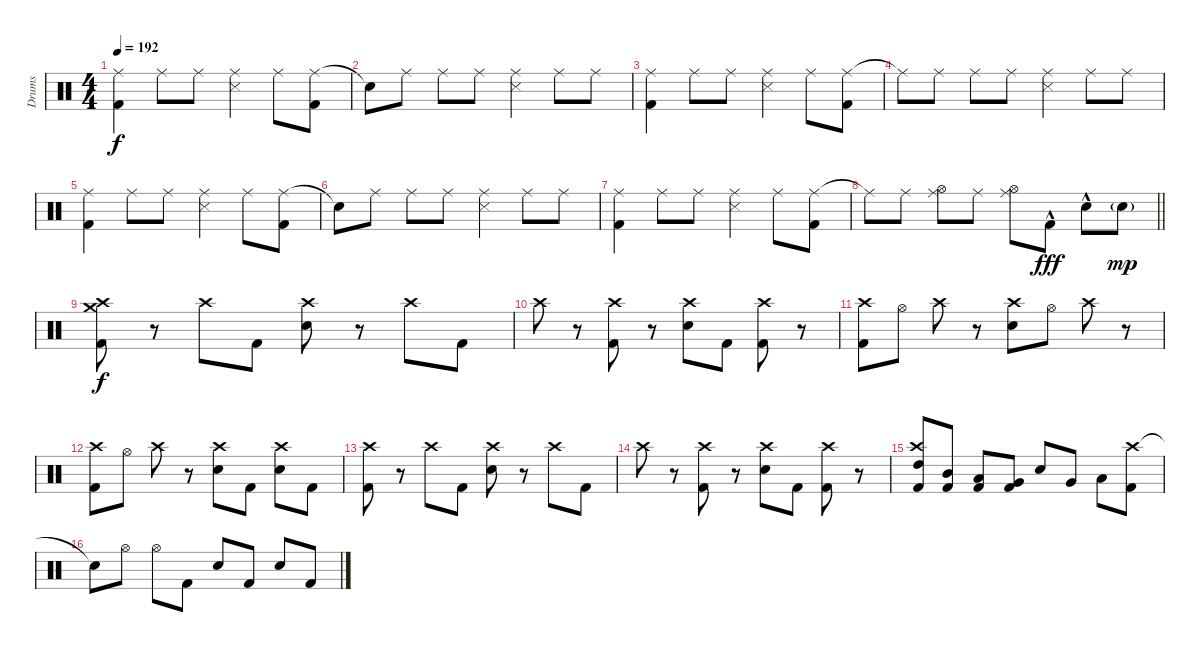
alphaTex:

\track ("Drums" "Drums") {instrument percussion}
\staff {score}
\articulation defaults
\ts (4 4)
\tempo 192
\clef neutral
\ks c
("Ride (middle)" "Kick (hit) 2").4{dy f} "Ride (middle)".8 "Ride (middle)".8 ("Ride (middle)" "Snare (side stick) 3").4 "Ride (middle)".8 ("Ride (middle)" "Kick (hit) 2").8 |
"Snare (hit)"{t}.8 "Ride (middle)".8 "Ride (middle)".8 "Ride (middle)".8 ("Ride (middle)" "Snare (side stick) 3").4 "Ride (middle)".8 "Ride (middle)".8 |
("Ride (middle)" "Kick (hit) 2").4 "Ride (middle)".8 "Ride (middle)".8 ("Ride (middle)" "Snare (side stick) 3").4 "Ride (middle)".8 ("Ride (middle)" "Kick (hit) 2").8 |
"Ride (middle)"{t}.8 "Ride (middle)".8 "Ride (middle)".8 "Ride (middle)".8 ("Ride (middle)" "Snare (side stick) 3").4 "Ride (middle)".8 "Ride (middle)".8 |
("Ride (middle)" "Kick (hit) 2").4 "Ride (middle)".8 "Ride (middle)".8 ("Ride (middle)" "Snare (side stick) 3").4 "Ride (middle)".8 ("Ride (middle)" "Kick (hit) 2").8 |
"Snare (hit)"{t}.8 "Ride (middle)".8 "Ride (middle)".8 "Ride (middle)".8 ("Ride (middle)" "Snare (side stick) 3").4 "Ride (middle)".8 "Ride (middle)".8 |
("Ride (middle)" "Kick (hit) 2").4 "Ride (middle)".8 "Ride (middle)".8 ("Ride (middle)" "Snare (side stick) 3").4 "Ride (middle)".8 ("Ride (middle)" "Kick (hit) 2").8 |
\barLineRight lightlight "Ride (middle)"{t}.8 "Ride (middle)".8
("Ride (middle)" "Hi-Hat (open)").8 "Ride (middle)".8 ("Ride (middle)" "Hi-Hat (open)").8 "Kick (hit) 2"{hac}.8{dy fff} "Electric Snare (hit)"{hac}.8 "Electric Snare (hit)"{g}.8{dy mp} |
("Crash high (hit)" "Crash medium (hit)" "Kick (hit) 2").8{dy f} r.8 "Crash high (hit)".8 "Kick (hit) 2".8 ("Crash high (hit)" "Electric Snare (hit)").8 r.8 "Crash high (hit)".8 "Kick (hit) 2".8 |
"Crash high (hit)".8 r.8 ("Crash high (hit)" "Kick (hit) 2").8 r.8 ("Crash high (hit)" "Electric Snare (hit)").8 "Kick (hit) 2".8 ("Crash high (hit)" "Kick (hit) 2").8 r.8 |
("Crash high (hit)" "Kick (hit) 2").8 "Hi-Hat (open)".8 "Crash high (hit)".8 r.8 ("Crash high (hit)" "Electric Snare (hit)").8 "Hi-Hat (open)".8 "Crash high (hit)".8 r.8 |
("Crash high (hit)" "Kick (hit) 2").8 "Hi-Hat (open)".8 "Crash high (hit)".8 r.8 ("Crash high (hit)" "Electric Snare (hit)").8 "Kick (hit) 2".8 ("Crash high (hit)" "Electric Snare (hit)").8 "Kick (hit) 2".8 |
("Crash high (hit)" "Kick (hit) 2").8 r.8 "Crash high (hit)".8 "Kick (hit) 2".8 ("Crash high (hit)" "Electric Snare (hit)").8 r.8 "Crash high (hit)".8 "Kick (hit) 2".8 |
"Crash high (hit)".8 r.8 ("Crash high (hit)" "Kick (hit) 2").8 r.8 ("Crash high (hit)" "Electric Snare (hit)").8 "Kick (hit) 2".8 ("Crash high (hit)" "Kick (hit) 2").8 r.8 |
("Crash high (hit)" "High Tom (hit)" "Kick (hit) 2").8 ("Mid Tom (hit)" "Kick (hit) 2").8 ("Low Tom (hit)" "Kick (hit) 2").8 ("Very Low Tom (hit)" "Kick (hit) 2").8 "Electric Snare (hit)".8 "Very Low Tom (hit)".8 "Low Floor Tom (hit)".8 ("Crash high (hit)" "Kick (hit) 2").8 |
"Snare (hit)"{t}.8 "Hi-Hat (open)".8 "Hi-Hat (open)".8 "Kick (hit) 2".8 "Electric Snare (hit)".8 "Kick (hit) 2".8 "Electric Snare (hit)".8 "Kick (hit) 2".8
